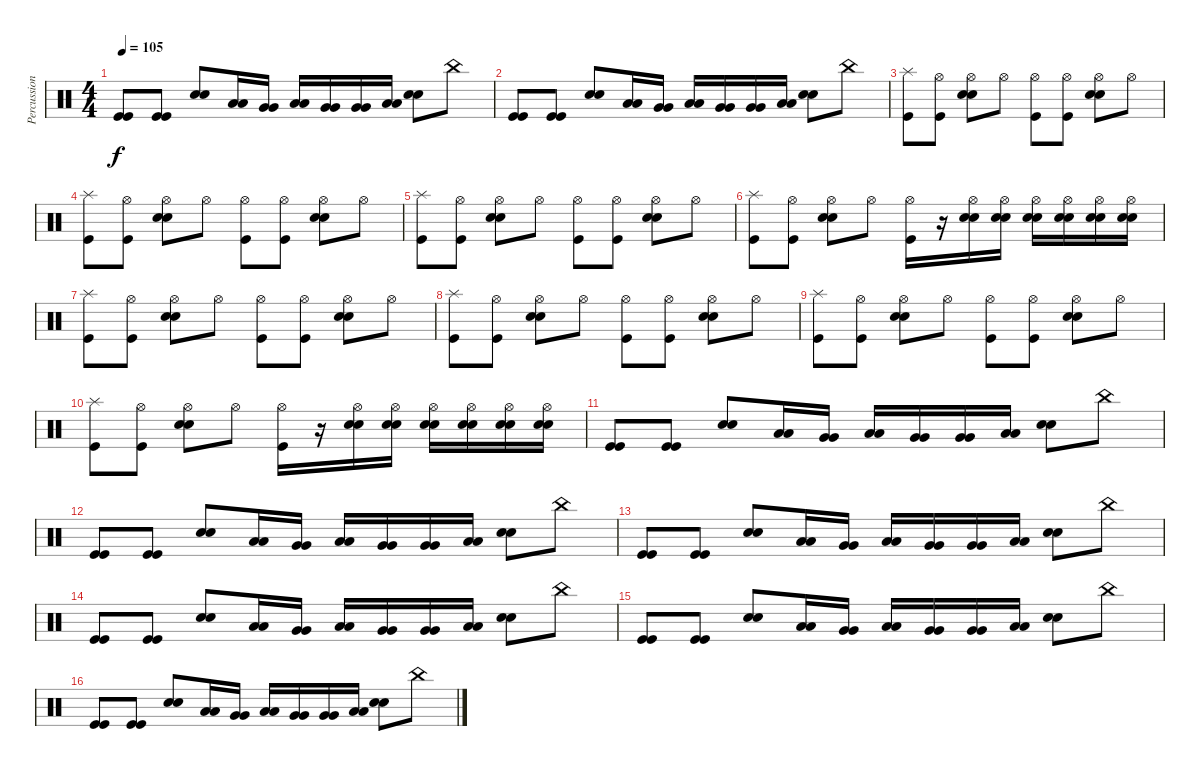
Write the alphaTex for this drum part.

\track ("Percussion" "Percussion") {instrument percussion}
\staff {score}
\articulation defaults
\ts (4 4)
\tempo 105
\clef neutral
\ks c
("Kick (hit)" "Kick (hit)").8{dy f} ("Kick (hit)" "Kick (hit)").8 ("Snare (hit) 2" "Snare (hit) 2").8 ("Low Tom (hit)" "Low Tom (hit)").16 ("Very Low Tom (hit)" "Very Low Tom (hit)").16 ("Low Floor Tom (hit)" "Low Floor Tom (hit)").16 ("Very Low Tom (hit)" "Very Low Tom (hit)").16 ("Very Low Tom (hit)" "Very Low Tom (hit)").16 ("Low Floor Tom (hit)" "Low Floor Tom (hit)").16 ("Snare (hit) 2" "Snare (hit) 2").8 "China (hit)".8 |
("Kick (hit)" "Kick (hit)").8 ("Kick (hit)" "Kick (hit)").8 ("Snare (hit) 2" "Snare (hit) 2").8 ("Low Tom (hit)" "Low Tom (hit)").16 ("Very Low Tom (hit)" "Very Low Tom (hit)").16 ("Low Floor Tom (hit)" "Low Floor Tom (hit)").16 ("Very Low Tom (hit)" "Very Low Tom (hit)").16 ("Very Low Tom (hit)" "Very Low Tom (hit)").16 ("Low Floor Tom (hit)" "Low Floor Tom (hit)").16 ("Snare (hit) 2" "Snare (hit) 2").8 "China (hit)".8 |
("Splash (hit)" "Kick (hit)").8 ("Hi-Hat (open)" "Kick (hit)").8 ("Snare (hit) 2" "Hi-Hat (open)" "Snare (hit) 2").8 "Hi-Hat (open)".8 ("Hi-Hat (open)" "Kick (hit)").8 ("Hi-Hat (open)" "Kick (hit)").8 ("Snare (hit) 2" "Hi-Hat (open)" "Snare (hit) 2").8 "Hi-Hat (open)".8 |
("Splash (hit)" "Kick (hit)").8 ("Hi-Hat (open)" "Kick (hit)").8 ("Snare (hit) 2" "Hi-Hat (open)" "Snare (hit) 2").8 "Hi-Hat (open)".8 ("Hi-Hat (open)" "Kick (hit)").8 ("Hi-Hat (open)" "Kick (hit)").8 ("Snare (hit) 2" "Hi-Hat (open)" "Snare (hit) 2").8 "Hi-Hat (open)".8 |
("Splash (hit)" "Kick (hit)").8 ("Hi-Hat (open)" "Kick (hit)").8 ("Snare (hit) 2" "Hi-Hat (open)" "Snare (hit) 2").8 "Hi-Hat (open)".8 ("Hi-Hat (open)" "Kick (hit)").8 ("Hi-Hat (open)" "Kick (hit)").8 ("Snare (hit) 2" "Hi-Hat (open)" "Snare (hit) 2").8 "Hi-Hat (open)".8 |
("Splash (hit)" "Kick (hit)").8 ("Hi-Hat (open)" "Kick (hit)").8 ("Snare (hit) 2" "Hi-Hat (open)" "Snare (hit) 2").8 "Hi-Hat (open)".8 ("Hi-Hat (open)" "Kick (hit)").16 r.16 ("Snare (hit) 2" "Hi-Hat (open)" "Snare (hit) 2").16 ("Snare (hit) 2" "Hi-Hat (open)" "Snare (hit) 2").16 ("Snare (hit) 2" "Hi-Hat (open)" "Snare (hit) 2").16 ("Snare (hit) 2" "Hi-Hat (open)" "Snare (hit) 2").16 ("Snare (hit) 2" "Hi-Hat (open)" "Snare (hit) 2").16 ("Snare (hit) 2" "Hi-Hat (open)" "Snare (hit) 2").16 |
("Splash (hit)" "Kick (hit)").8 ("Hi-Hat (open)" "Kick (hit)").8 ("Snare (hit) 2" "Hi-Hat (open)" "Snare (hit) 2").8 "Hi-Hat (open)".8 ("Hi-Hat (open)" "Kick (hit)").8 ("Hi-Hat (open)" "Kick (hit)").8 ("Snare (hit) 2" "Hi-Hat (open)" "Snare (hit) 2").8 "Hi-Hat (open)".8 |
("Splash (hit)" "Kick (hit)").8 ("Hi-Hat (open)" "Kick (hit)").8 ("Snare (hit) 2" "Hi-Hat (open)" "Snare (hit) 2").8 "Hi-Hat (open)".8 ("Hi-Hat (open)" "Kick (hit)").8 ("Hi-Hat (open)" "Kick (hit)").8 ("Snare (hit) 2" "Hi-Hat (open)" "Snare (hit) 2").8 "Hi-Hat (open)".8 |
("Splash (hit)" "Kick (hit)").8 ("Hi-Hat (open)" "Kick (hit)").8 ("Snare (hit) 2" "Hi-Hat (open)" "Snare (hit) 2").8 "Hi-Hat (open)".8 ("Hi-Hat (open)" "Kick (hit)").8 ("Hi-Hat (open)" "Kick (hit)").8 ("Snare (hit) 2" "Hi-Hat (open)" "Snare (hit) 2").8 "Hi-Hat (open)".8 |
("Splash (hit)" "Kick (hit)").8 ("Hi-Hat (open)" "Kick (hit)").8 ("Snare (hit) 2" "Hi-Hat (open)" "Snare (hit) 2").8 "Hi-Hat (open)".8 ("Hi-Hat (open)" "Kick (hit)").16 r.16 ("Snare (hit) 2" "Hi-Hat (open)" "Snare (hit) 2").16 ("Snare (hit) 2" "Hi-Hat (open)" "Snare (hit) 2").16 ("Snare (hit) 2" "Hi-Hat (open)" "Snare (hit) 2").16 ("Snare (hit) 2" "Hi-Hat (open)" "Snare (hit) 2").16 ("Snare (hit) 2" "Hi-Hat (open)" "Snare (hit) 2").16 ("Snare (hit) 2" "Hi-Hat (open)" "Snare (hit) 2").16 |
("Kick (hit)" "Kick (hit)").8 ("Kick (hit)" "Kick (hit)").8 ("Snare (hit) 2" "Snare (hit) 2").8 ("Low Tom (hit)" "Low Tom (hit)").16 ("Very Low Tom (hit)" "Very Low Tom (hit)").16 ("Low Floor Tom (hit)" "Low Floor Tom (hit)").16 ("Very Low Tom (hit)" "Very Low Tom (hit)").16 ("Very Low Tom (hit)" "Very Low Tom (hit)").16 ("Low Floor Tom (hit)" "Low Floor Tom (hit)").16 ("Snare (hit) 2" "Snare (hit) 2").8 "China (hit)".8 |
("Kick (hit)" "Kick (hit)").8 ("Kick (hit)" "Kick (hit)").8 ("Snare (hit) 2" "Snare (hit) 2").8 ("Low Tom (hit)" "Low Tom (hit)").16 ("Very Low Tom (hit)" "Very Low Tom (hit)").16 ("Low Floor Tom (hit)" "Low Floor Tom (hit)").16 ("Very Low Tom (hit)" "Very Low Tom (hit)").16 ("Very Low Tom (hit)" "Very Low Tom (hit)").16 ("Low Floor Tom (hit)" "Low Floor Tom (hit)").16 ("Snare (hit) 2" "Snare (hit) 2").8 "China (hit)".8 |
("Kick (hit)" "Kick (hit)").8 ("Kick (hit)" "Kick (hit)").8 ("Snare (hit) 2" "Snare (hit) 2").8 ("Low Tom (hit)" "Low Tom (hit)").16 ("Very Low Tom (hit)" "Very Low Tom (hit)").16 ("Low Floor Tom (hit)" "Low Floor Tom (hit)").16 ("Very Low Tom (hit)" "Very Low Tom (hit)").16 ("Very Low Tom (hit)" "Very Low Tom (hit)").16 ("Low Floor Tom (hit)" "Low Floor Tom (hit)").16 ("Snare (hit) 2" "Snare (hit) 2").8 "China (hit)".8 |
("Kick (hit)" "Kick (hit)").8 ("Kick (hit)" "Kick (hit)").8 ("Snare (hit) 2" "Snare (hit) 2").8 ("Low Tom (hit)" "Low Tom (hit)").16 ("Very Low Tom (hit)" "Very Low Tom (hit)").16 ("Low Floor Tom (hit)" "Low Floor Tom (hit)").16 ("Very Low Tom (hit)" "Very Low Tom (hit)").16 ("Very Low Tom (hit)" "Very Low Tom (hit)").16 ("Low Floor Tom (hit)" "Low Floor Tom (hit)").16 ("Snare (hit) 2" "Snare (hit) 2").8 "China (hit)".8 |
("Kick (hit)" "Kick (hit)").8 ("Kick (hit)" "Kick (hit)").8 ("Snare (hit) 2" "Snare (hit) 2").8 ("Low Tom (hit)" "Low Tom (hit)").16 ("Very Low Tom (hit)" "Very Low Tom (hit)").16 ("Low Floor Tom (hit)" "Low Floor Tom (hit)").16 ("Very Low Tom (hit)" "Very Low Tom (hit)").16 ("Very Low Tom (hit)" "Very Low Tom (hit)").16 ("Low Floor Tom (hit)" "Low Floor Tom (hit)").16 ("Snare (hit) 2" "Snare (hit) 2").8 "China (hit)".8 |
("Kick (hit)" "Kick (hit)").8 ("Kick (hit)" "Kick (hit)").8 ("Snare (hit) 2" "Snare (hit) 2").8 ("Low Tom (hit)" "Low Tom (hit)").16 ("Very Low Tom (hit)" "Very Low Tom (hit)").16 ("Low Floor Tom (hit)" "Low Floor Tom (hit)").16 ("Very Low Tom (hit)" "Very Low Tom (hit)").16 ("Very Low Tom (hit)" "Very Low Tom (hit)").16 ("Low Floor Tom (hit)" "Low Floor Tom (hit)").16 ("Snare (hit) 2" "Snare (hit) 2").8 "China (hit)".8
